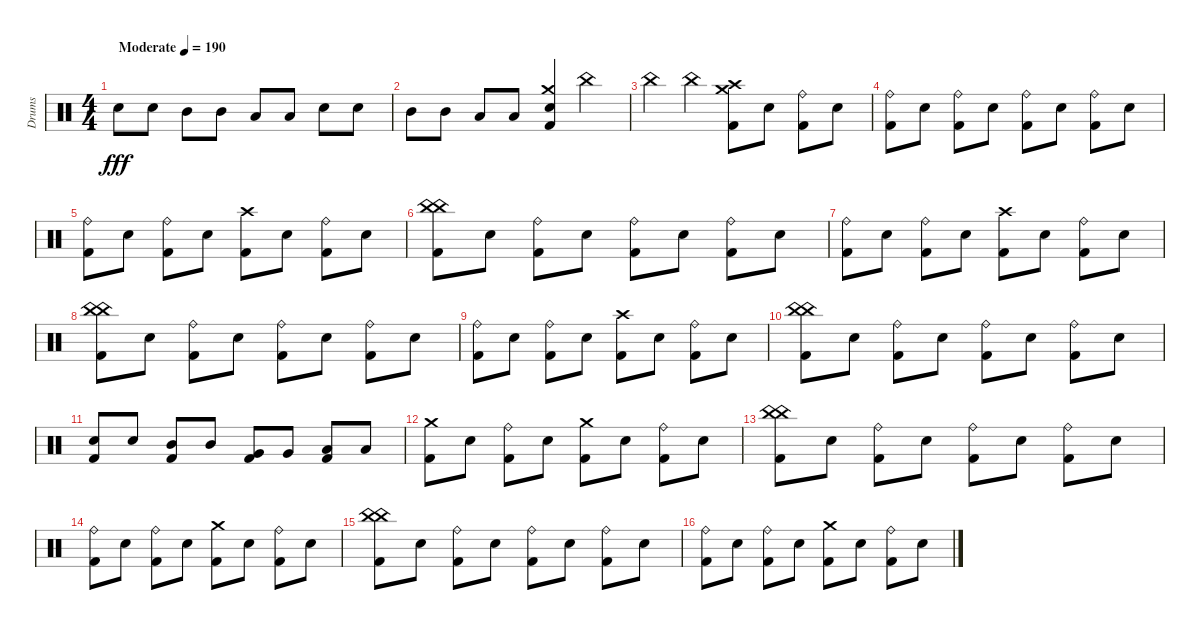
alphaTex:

\track ("Drums" "Drums") {instrument percussion}
\staff {score}
\articulation defaults
\ts (4 4)
\tempo (190 "Moderate")
\clef neutral
\ks c "Electric Snare (hit)".8{dy fff} "Electric Snare (hit)".8 "Mid Tom (hit)".8 "Mid Tom (hit)".8 "Low Tom (hit)".8 "Low Tom (hit)".8 "Electric Snare (hit)".8 "Electric Snare (hit)".8
|
"Mid Tom (hit)".8 "Mid Tom (hit)".8 "Low Tom (hit)".8 "Low Tom (hit)".8 ("Crash medium (hit)" "Kick (hit) 2" "Electric Snare (hit)").4 "China (hit)".4 |
"China (hit)".4 "China (hit)".4 ("Kick (hit) 2" "Crash medium (hit)" "Crash high (hit)").8 "Electric Snare (hit)".8 ("Kick (hit) 2" "Ride (bell)").8 "Electric Snare (hit)".8 |
("Kick (hit) 2" "Ride (bell)").8 "Electric Snare (hit)".8 ("Kick (hit) 2" "Ride (bell)").8 "Electric Snare (hit)".8 ("Kick (hit) 2" "Ride (bell)").8 "Electric Snare (hit)".8 ("Kick (hit) 2" "Ride (bell)").8 "Electric Snare (hit)".8 |
("Kick (hit) 2" "Ride (bell)").8 "Electric Snare (hit)".8 ("Kick (hit) 2" "Ride (bell)").8 "Electric Snare (hit)".8 ("Kick (hit) 2" "Crash high (hit)").8 "Electric Snare (hit)".8 ("Kick (hit) 2" "Ride (bell)").8 "Electric Snare (hit)".8 |
("Kick (hit) 2" "China (hit)" "China (hit)").8 "Electric Snare (hit)".8 ("Kick (hit) 2" "Ride (bell)").8 "Electric Snare (hit)".8 ("Kick (hit) 2" "Ride (bell)").8 "Electric Snare (hit)".8 ("Kick (hit) 2" "Ride (bell)").8 "Electric Snare (hit)".8 |
("Kick (hit) 2" "Ride (bell)").8 "Electric Snare (hit)".8 ("Kick (hit) 2" "Ride (bell)").8 "Electric Snare (hit)".8 ("Kick (hit) 2" "Crash high (hit)").8 "Electric Snare (hit)".8 ("Kick (hit) 2" "Ride (bell)").8 "Electric Snare (hit)".8 |
("Kick (hit) 2" "China (hit)" "China (hit)").8 "Electric Snare (hit)".8 ("Kick (hit) 2" "Ride (bell)").8 "Electric Snare (hit)".8 ("Kick (hit) 2" "Ride (bell)").8 "Electric Snare (hit)".8 ("Kick (hit) 2" "Ride (bell)").8 "Electric Snare (hit)".8 |
("Kick (hit) 2" "Ride (bell)").8 "Electric Snare (hit)".8 ("Kick (hit) 2" "Ride (bell)").8 "Electric Snare (hit)".8 ("Kick (hit) 2" "Crash high (hit)").8 "Electric Snare (hit)".8 ("Kick (hit) 2" "Ride (bell)").8 "Electric Snare (hit)".8 |
("Kick (hit) 2" "China (hit)" "China (hit)").8 "Electric Snare (hit)".8 ("Kick (hit) 2" "Ride (bell)").8 "Electric Snare (hit)".8 ("Kick (hit) 2" "Ride (bell)").8 "Electric Snare (hit)".8 ("Kick (hit) 2" "Ride (bell)").8 "Electric Snare (hit)".8 |
("Electric Snare (hit)" "Kick (hit) 2").8 "Electric Snare (hit)".8 ("Mid Tom (hit)" "Kick (hit) 2").8 "Mid Tom (hit)".8 ("Very Low Tom (hit)" "Kick (hit) 2").8 "Very Low Tom (hit)".8 ("Low Floor Tom (hit)" "Kick (hit) 2").8 "Low Floor Tom (hit)".8 |
("Kick (hit) 2" "Crash medium (hit)").8 "Electric Snare (hit)".8 ("Kick (hit) 2" "Ride (bell)").8 "Electric Snare (hit)".8 ("Kick (hit) 2" "Crash medium (hit)").8 "Electric Snare (hit)".8 ("Kick (hit) 2" "Ride (bell)").8 "Electric Snare (hit)".8 |
("Kick (hit) 2" "China (hit)" "China (hit)").8 "Electric Snare (hit)".8 ("Kick (hit) 2" "Ride (bell)").8 "Electric Snare (hit)".8 ("Kick (hit) 2" "Ride (bell)").8 "Electric Snare (hit)".8 ("Kick (hit) 2" "Ride (bell)").8 "Electric Snare (hit)".8 |
("Kick (hit) 2" "Ride (bell)").8 "Electric Snare (hit)".8 ("Kick (hit) 2" "Ride (bell)").8 "Electric Snare (hit)".8 ("Kick (hit) 2" "Crash medium (hit)").8 "Electric Snare (hit)".8 ("Kick (hit) 2" "Ride (bell)").8 "Electric Snare (hit)".8 |
("Kick (hit) 2" "China (hit)" "China (hit)").8 "Electric Snare (hit)".8 ("Kick (hit) 2" "Ride (bell)").8 "Electric Snare (hit)".8 ("Kick (hit) 2" "Ride (bell)").8 "Electric Snare (hit)".8 ("Kick (hit) 2" "Ride (bell)").8 "Electric Snare (hit)".8 |
("Kick (hit) 2" "Ride (bell)").8 "Electric Snare (hit)".8 ("Kick (hit) 2" "Ride (bell)").8 "Electric Snare (hit)".8 ("Kick (hit) 2" "Crash medium (hit)").8 "Electric Snare (hit)".8 ("Kick (hit) 2" "Ride (bell)").8 "Electric Snare (hit)".8
